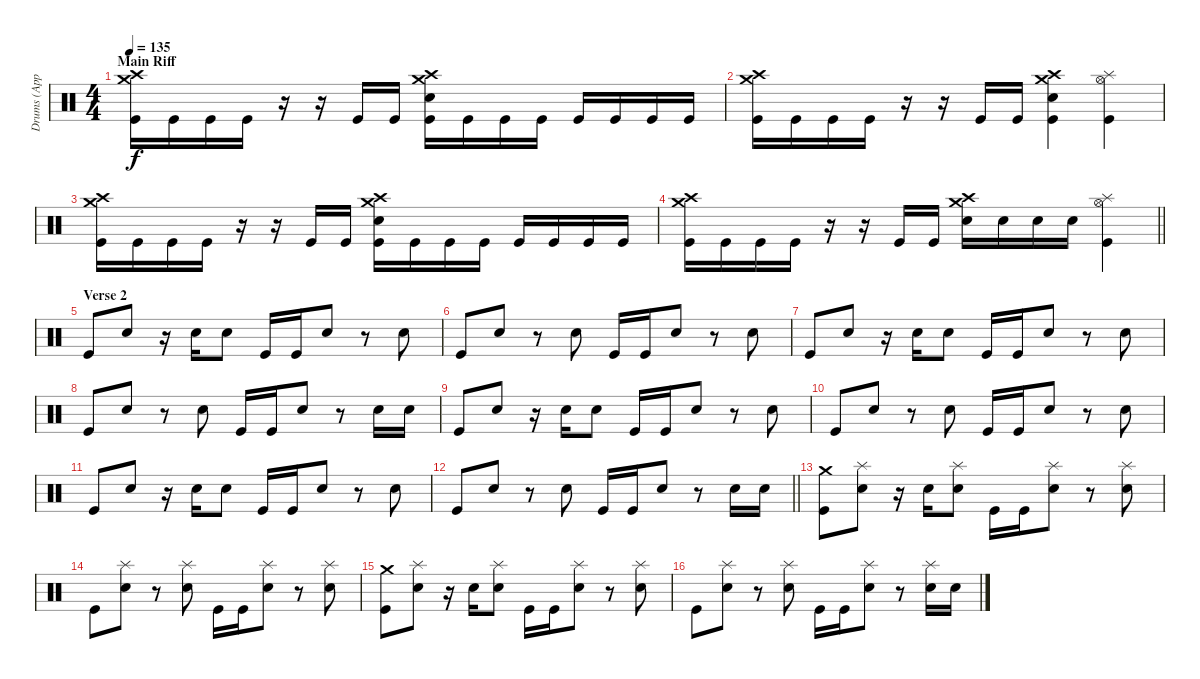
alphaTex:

\track ("Drums (Approx.)" "Drums (App") {instrument percussion}
\staff {score}
\articulation defaults
\ts (4 4)
\section ("" "Main Riff")
\tempo 135
\clef neutral
\ks c
("Crash medium (hit)" "Crash high (hit)" "Kick (hit)").16{dy f} "Kick (hit)".16 "Kick (hit)".16 "Kick (hit)".16 r.16 r.16 "Kick (hit)".16 "Kick (hit)".16 ("Crash medium (hit)" "Crash high (hit)" "Electric Snare (hit)" "Kick (hit)").16 "Kick (hit)".16 "Kick (hit)".16 "Kick (hit)".16 "Kick (hit)".16 "Kick (hit)".16 "Kick (hit)".16 "Kick (hit)".16 |
("Crash medium (hit)" "Crash high (hit)" "Kick (hit)").16 "Kick (hit)".16 "Kick (hit)".16 "Kick (hit)".16 r.16 r.16 "Kick (hit)".16 "Kick (hit)".16 ("Crash medium (hit)" "Crash high (hit)" "Electric Snare (hit)" "Kick (hit)").4 ("Hi-Hat (open)" "Splash (hit)" "Kick (hit)").4 |
("Crash medium (hit)" "Crash high (hit)" "Kick (hit)").16 "Kick (hit)".16 "Kick (hit)".16 "Kick (hit)".16 r.16 r.16 "Kick (hit)".16 "Kick (hit)".16 ("Crash medium (hit)" "Crash high (hit)" "Electric Snare (hit)" "Kick (hit)").16 "Kick (hit)".16 "Kick (hit)".16 "Kick (hit)".16 "Kick (hit)".16 "Kick (hit)".16 "Kick (hit)".16 "Kick (hit)".16 |
\barLineRight lightlight
("Crash medium (hit)" "Crash high (hit)" "Kick (hit)").16 "Kick (hit)".16 "Kick (hit)".16 "Kick (hit)".16 r.16 r.16 "Kick (hit)".16 "Kick (hit)".16 ("Crash medium (hit)" "Crash high (hit)" "Electric Snare (hit)").16 "Electric Snare (hit)".16 "Electric Snare (hit)".16 "Electric Snare (hit)".16 ("Splash (hit)" "Hi-Hat (open)" "Kick (hit)").4 |
\section ("" "Verse 2")
"Kick (hit)".8 "Electric Snare (hit)".8 r.16 "Electric Snare (hit)".16 "Electric Snare (hit)".8 "Kick (hit)".16 "Kick (hit)".16 "Electric Snare (hit)".8 r.8 "Electric Snare (hit)".8 |
"Kick (hit)".8 "Electric Snare (hit)".8 r.8 "Electric Snare (hit)".8 "Kick (hit)".16 "Kick (hit)".16 "Electric Snare (hit)".8 r.8 "Electric Snare (hit)".8 |
"Kick (hit)".8 "Electric Snare (hit)".8 r.16 "Electric Snare (hit)".16 "Electric Snare (hit)".8 "Kick (hit)".16 "Kick (hit)".16 "Electric Snare (hit)".8 r.8 "Electric Snare (hit)".8 |
"Kick (hit)".8 "Electric Snare (hit)".8 r.8 "Electric Snare (hit)".8 "Kick (hit)".16 "Kick (hit)".16 "Electric Snare (hit)".8 r.8 "Electric Snare (hit)".16 "Electric Snare (hit)".16 |
"Kick (hit)".8 "Electric Snare (hit)".8 r.16 "Electric Snare (hit)".16 "Electric Snare (hit)".8 "Kick (hit)".16 "Kick (hit)".16 "Electric Snare (hit)".8 r.8 "Electric Snare (hit)".8 |
"Kick (hit)".8 "Electric Snare (hit)".8 r.8 "Electric Snare (hit)".8 "Kick (hit)".16 "Kick (hit)".16 "Electric Snare (hit)".8 r.8 "Electric Snare (hit)".8 |
"Kick (hit)".8 "Electric Snare (hit)".8 r.16 "Electric Snare (hit)".16 "Electric Snare (hit)".8 "Kick (hit)".16 "Kick (hit)".16 "Electric Snare (hit)".8 r.8 "Electric Snare (hit)".8 |
\barLineRight lightlight "Kick (hit)".8 "Electric Snare (hit)".8
r.8 "Electric Snare (hit)".8 "Kick (hit)".16 "Kick (hit)".16 "Electric Snare (hit)".8 r.8 "Electric Snare (hit)".16 "Electric Snare (hit)".16 |
\section ("" "")
("Crash medium (hit)" "Kick (hit)").8 ("Splash (hit)" "Electric Snare (hit)").8 r.16 "Electric Snare (hit)".16 ("Splash (hit)" "Electric Snare (hit)").8 "Kick (hit)".16 "Kick (hit)".16 ("Splash (hit)" "Electric Snare (hit)").8 r.8 ("Splash (hit)" "Electric Snare (hit)").8 |
"Kick (hit)".8 ("Splash (hit)" "Electric Snare (hit)").8 r.8 ("Splash (hit)" "Electric Snare (hit)").8 "Kick (hit)".16 "Kick (hit)".16 ("Splash (hit)" "Electric Snare (hit)").8 r.8 ("Splash (hit)" "Electric Snare (hit)").8 |
("Crash medium (hit)" "Kick (hit)").8 ("Splash (hit)" "Electric Snare (hit)").8 r.16 "Electric Snare (hit)".16 ("Splash (hit)" "Electric Snare (hit)").8 "Kick (hit)".16 "Kick (hit)".16 ("Splash (hit)" "Electric Snare (hit)").8 r.8 ("Splash (hit)" "Electric Snare (hit)").8 |
"Kick (hit)".8 ("Splash (hit)" "Electric Snare (hit)").8 r.8 ("Splash (hit)" "Electric Snare (hit)").8 "Kick (hit)".16 "Kick (hit)".16 ("Splash (hit)" "Electric Snare (hit)").8 r.8 ("Splash (hit)" "Electric Snare (hit)").16 "Electric Snare (hit)".16
